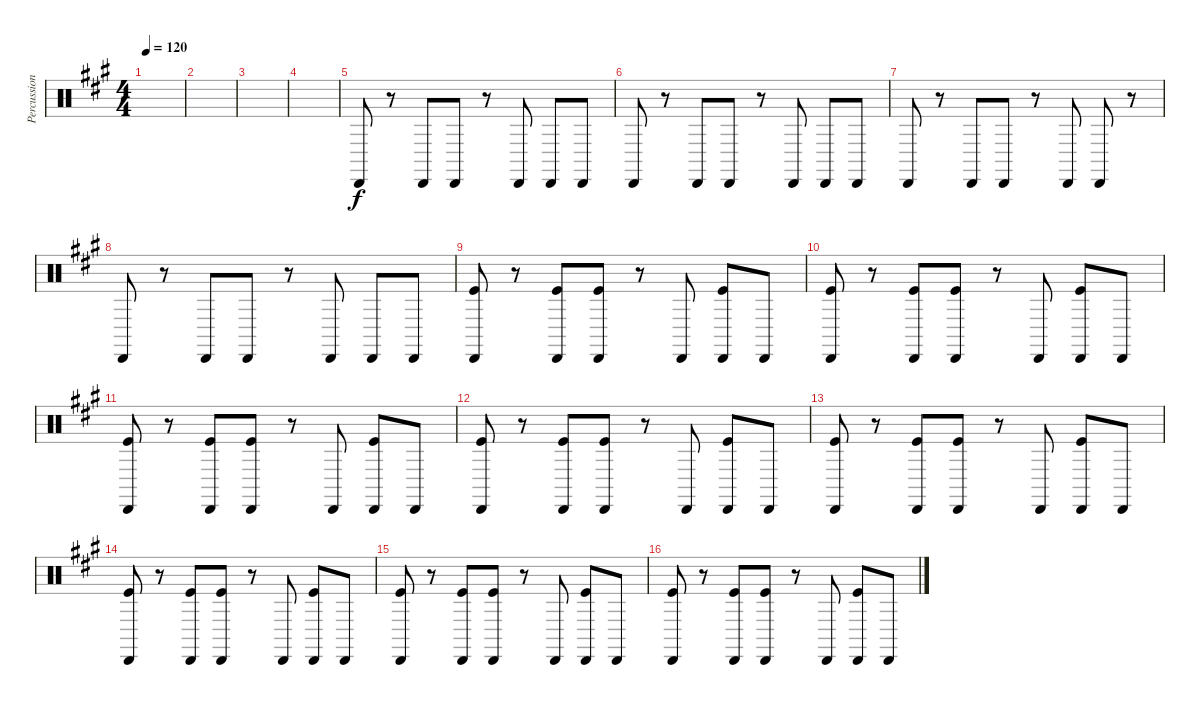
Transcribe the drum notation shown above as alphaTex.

\track ("Percussion" "Percussion") {instrument percussion}
\staff {score}
\articulation defaults
\ts (4 4)
\tempo 120
\clef neutral
\ks f#minor
|
|
|
|
"Cabasa (hit)".8 r.8 "Cabasa (hit)".8 "Cabasa (hit)".8 r.8 "Cabasa (hit)".8 "Cabasa (hit)".8 "Cabasa (hit)".8 |
"Cabasa (hit)".8 r.8 "Cabasa (hit)".8 "Cabasa (hit)".8 r.8 "Cabasa (hit)".8 "Cabasa (hit)".8 "Cabasa (hit)".8 |
"Cabasa (hit)".8 r.8 "Cabasa (hit)".8 "Cabasa (hit)".8 r.8 "Cabasa (hit)".8 "Cabasa (hit)".8 r.8 |
"Cabasa (hit)".8 r.8 "Cabasa (hit)".8 "Cabasa (hit)".8 r.8 "Cabasa (hit)".8 "Cabasa (hit)".8 "Cabasa (hit)".8 |
("Kick (hit)" "Cabasa (hit)").8 r.8 ("Kick (hit)" "Cabasa (hit)").8 ("Kick (hit)" "Cabasa (hit)").8 r.8 "Cabasa (hit)".8 ("Kick (hit)" "Cabasa (hit)").8 "Cabasa (hit)".8 |
("Kick (hit)" "Cabasa (hit)").8 r.8 ("Kick (hit)" "Cabasa (hit)").8 ("Kick (hit)" "Cabasa (hit)").8 r.8 "Cabasa (hit)".8 ("Kick (hit)" "Cabasa (hit)").8 "Cabasa (hit)".8 |
("Kick (hit)" "Cabasa (hit)").8 r.8 ("Kick (hit)" "Cabasa (hit)").8 ("Kick (hit)" "Cabasa (hit)").8 r.8 "Cabasa (hit)".8 ("Kick (hit)" "Cabasa (hit)").8 "Cabasa (hit)".8 |
("Kick (hit)" "Cabasa (hit)").8 r.8 ("Kick (hit)" "Cabasa (hit)").8 ("Kick (hit)" "Cabasa (hit)").8 r.8 "Cabasa (hit)".8 ("Kick (hit)" "Cabasa (hit)").8 "Cabasa (hit)".8 |
("Kick (hit)" "Cabasa (hit)").8 r.8 ("Kick (hit)" "Cabasa (hit)").8 ("Kick (hit)" "Cabasa (hit)").8 r.8 "Cabasa (hit)".8 ("Kick (hit)" "Cabasa (hit)").8 "Cabasa (hit)".8 |
("Kick (hit)" "Cabasa (hit)").8 r.8 ("Kick (hit)" "Cabasa (hit)").8 ("Kick (hit)" "Cabasa (hit)").8 r.8 "Cabasa (hit)".8 ("Kick (hit)" "Cabasa (hit)").8 "Cabasa (hit)".8 |
("Kick (hit)" "Cabasa (hit)").8 r.8 ("Kick (hit)" "Cabasa (hit)").8 ("Kick (hit)" "Cabasa (hit)").8 r.8 "Cabasa (hit)".8 ("Kick (hit)" "Cabasa (hit)").8 "Cabasa (hit)".8 |
("Kick (hit)" "Cabasa (hit)").8 r.8 ("Kick (hit)" "Cabasa (hit)").8 ("Kick (hit)" "Cabasa (hit)").8 r.8 "Cabasa (hit)".8 ("Kick (hit)" "Cabasa (hit)").8 "Cabasa (hit)".8
